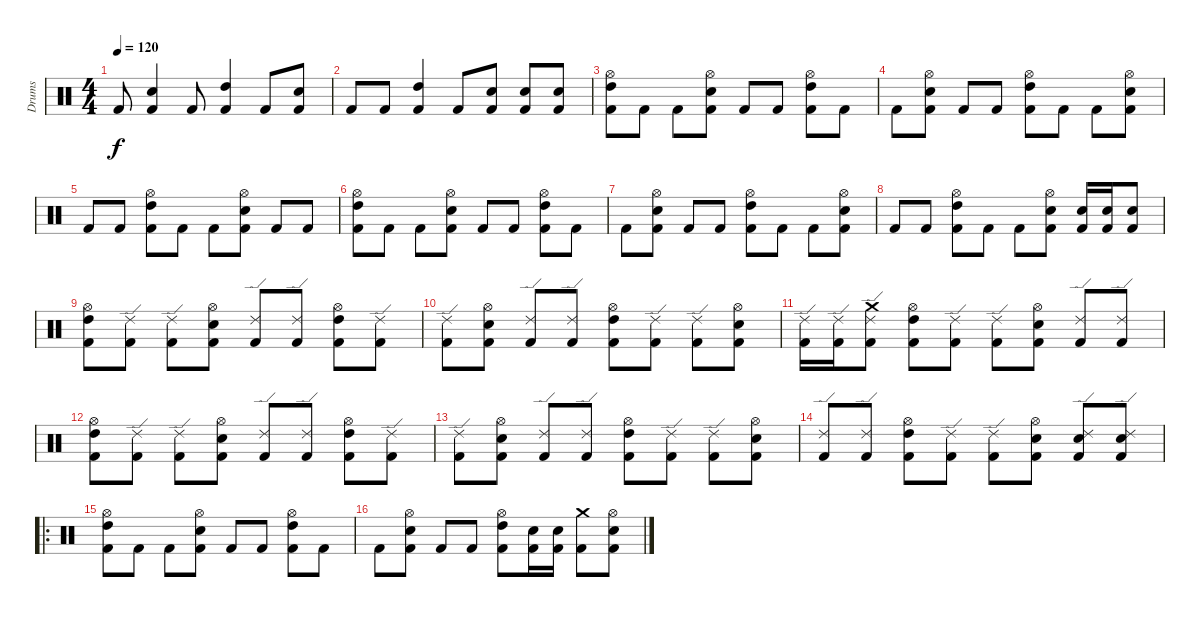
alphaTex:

\track ("Drums" "Drums") {instrument percussion}
\staff {score}
\articulation defaults
\ts (4 4)
\tempo 120
\clef neutral
\ks c "Kick (hit) 2".8{dy f}
("Snare (hit) 2" "Kick (hit) 2").4 "Kick (hit) 2".8 ("High Tom (hit)" "Kick (hit) 2").4 "Kick (hit) 2".8 ("Snare (hit) 2" "Kick (hit) 2").8 |
"Kick (hit) 2".8 "Kick (hit) 2".8 ("High Tom (hit)" "Kick (hit) 2").4 "Kick (hit) 2".8 ("Snare (hit) 2" "Kick (hit) 2").8 ("Snare (hit) 2" "Kick (hit) 2").8 ("Snare (hit) 2" "Kick (hit) 2").8 |
("Hi-Hat (open)" "High Tom (hit)" "Kick (hit) 2").8 "Kick (hit) 2".8 "Kick (hit) 2".8 ("Hi-Hat (open)" "Snare (hit) 2" "Kick (hit) 2").8 "Kick (hit) 2".8 "Kick (hit) 2".8 ("Hi-Hat (open)" "High Tom (hit)" "Kick (hit) 2").8 "Kick (hit) 2".8 |
"Kick (hit) 2".8 ("Hi-Hat (open)" "Snare (hit) 2" "Kick (hit) 2").8 "Kick (hit) 2".8 "Kick (hit) 2".8 ("Hi-Hat (open)" "High Tom (hit)" "Kick (hit) 2").8 "Kick (hit) 2".8 "Kick (hit) 2".8 ("Hi-Hat (open)" "Snare (hit) 2" "Kick (hit) 2").8 |
"Kick (hit) 2".8 "Kick (hit) 2".8 ("Hi-Hat (open)" "High Tom (hit)" "Kick (hit) 2").8 "Kick (hit) 2".8 "Kick (hit) 2".8 ("Hi-Hat (open)" "Snare (hit) 2" "Kick (hit) 2").8 "Kick (hit) 2".8 "Kick (hit) 2".8 |
("Hi-Hat (open)" "High Tom (hit)" "Kick (hit) 2").8 "Kick (hit) 2".8 "Kick (hit) 2".8 ("Hi-Hat (open)" "Snare (hit) 2" "Kick (hit) 2").8 "Kick (hit) 2".8 "Kick (hit) 2".8 ("Hi-Hat (open)" "High Tom (hit)" "Kick (hit) 2").8 "Kick (hit) 2".8 |
"Kick (hit) 2".8 ("Hi-Hat (open)" "Snare (hit) 2" "Kick (hit) 2").8 "Kick (hit) 2".8 "Kick (hit) 2".8 ("Hi-Hat (open)" "High Tom (hit)" "Kick (hit) 2").8 "Kick (hit) 2".8 "Kick (hit) 2".8 ("Hi-Hat (open)" "Snare (hit) 2" "Kick (hit) 2").8 |
"Kick (hit) 2".8 "Kick (hit) 2".8 ("Hi-Hat (open)" "High Tom (hit)" "Kick (hit) 2").8 "Kick (hit) 2".8 "Kick (hit) 2".8 ("Hi-Hat (open)" "Snare (hit) 2" "Kick (hit) 2").8 ("Snare (hit) 2" "Kick (hit) 2").16 ("Snare (hit) 2" "Kick (hit) 2").16 ("Snare (hit) 2" "Kick (hit) 2").8 |
("Hi-Hat (open)" "High Tom (hit)" "Kick (hit) 2").8 ("Ride (edge) 2" "Kick (hit) 2").8 ("Ride (edge) 2" "Kick (hit) 2").8 ("Hi-Hat (open)" "Snare (hit) 2" "Kick (hit) 2").8 ("Ride (edge) 2" "Kick (hit) 2").8 ("Ride (edge) 2" "Kick (hit) 2").8 ("Hi-Hat (open)" "High Tom (hit)" "Kick (hit) 2").8 ("Ride (edge) 2" "Kick (hit) 2").8 |
("Ride (edge) 2" "Kick (hit) 2").8 ("Hi-Hat (open)" "Snare (hit) 2" "Kick (hit) 2").8 ("Ride (edge) 2" "Kick (hit) 2").8 ("Ride (edge) 2" "Kick (hit) 2").8 ("Hi-Hat (open)" "High Tom (hit)" "Kick (hit) 2").8 ("Ride (edge) 2" "Kick (hit) 2").8 ("Ride (edge) 2" "Kick (hit) 2").8 ("Hi-Hat (open)" "Snare (hit) 2" "Kick (hit) 2").8 |
("Ride (edge) 2" "Kick (hit) 2").16 ("Ride (edge) 2" "Kick (hit) 2").16 ("Ride (edge) 2" "Crash medium (hit)" "Kick (hit) 2").8 ("Hi-Hat (open)" "High Tom (hit)" "Kick (hit) 2").8 ("Ride (edge) 2" "Kick (hit) 2").8 ("Ride (edge) 2" "Kick (hit) 2").8 ("Hi-Hat (open)" "Snare (hit) 2" "Kick (hit) 2").8 ("Ride (edge) 2" "Kick (hit) 2").8 ("Ride (edge) 2" "Kick (hit) 2").8 |
("Hi-Hat (open)" "High Tom (hit)" "Kick (hit) 2").8 ("Ride (edge) 2" "Kick (hit) 2").8 ("Ride (edge) 2" "Kick (hit) 2").8 ("Hi-Hat (open)" "Snare (hit) 2" "Kick (hit) 2").8 ("Ride (edge) 2" "Kick (hit) 2").8 ("Ride (edge) 2" "Kick (hit) 2").8 ("Hi-Hat (open)" "High Tom (hit)" "Kick (hit) 2").8 ("Ride (edge) 2" "Kick (hit) 2").8 |
("Ride (edge) 2" "Kick (hit) 2").8 ("Hi-Hat (open)" "Snare (hit) 2" "Kick (hit) 2").8 ("Ride (edge) 2" "Kick (hit) 2").8 ("Ride (edge) 2" "Kick (hit) 2").8 ("Hi-Hat (open)" "High Tom (hit)" "Kick (hit) 2").8 ("Ride (edge) 2" "Kick (hit) 2").8 ("Ride (edge) 2" "Kick (hit) 2").8 ("Hi-Hat (open)" "Snare (hit) 2" "Kick (hit) 2").8 |
("Ride (edge) 2" "Kick (hit) 2").8 ("Ride (edge) 2" "Kick (hit) 2").8 ("Hi-Hat (open)" "High Tom (hit)" "Kick (hit) 2").8 ("Ride (edge) 2" "Kick (hit) 2").8 ("Ride (edge) 2" "Kick (hit) 2").8 ("Hi-Hat (open)" "Snare (hit) 2" "Kick (hit) 2").8 ("Ride (edge) 2" "Snare (hit) 2" "Kick (hit) 2").8 ("Ride (edge) 2" "Snare (hit) 2" "Kick (hit) 2").8 |
\ro
("Hi-Hat (open)" "High Tom (hit)" "Kick (hit) 2").8 "Kick (hit) 2".8 "Kick (hit) 2".8 ("Hi-Hat (open)" "Snare (hit) 2" "Kick (hit) 2").8 "Kick (hit) 2".8 "Kick (hit) 2".8 ("Hi-Hat (open)" "High Tom (hit)" "Kick (hit) 2").8 "Kick (hit) 2".8 |
"Kick (hit) 2".8 ("Hi-Hat (open)" "Snare (hit) 2" "Kick (hit) 2").8 "Kick (hit) 2".8 "Kick (hit) 2".8 ("Hi-Hat (open)" "High Tom (hit)" "Kick (hit) 2").8 ("Snare (hit) 2" "Kick (hit) 2").16 ("Snare (hit) 2" "Kick (hit) 2").16 ("Crash medium (hit)" "Kick (hit) 2").8 ("Hi-Hat (open)" "Snare (hit) 2" "Kick (hit) 2").8
